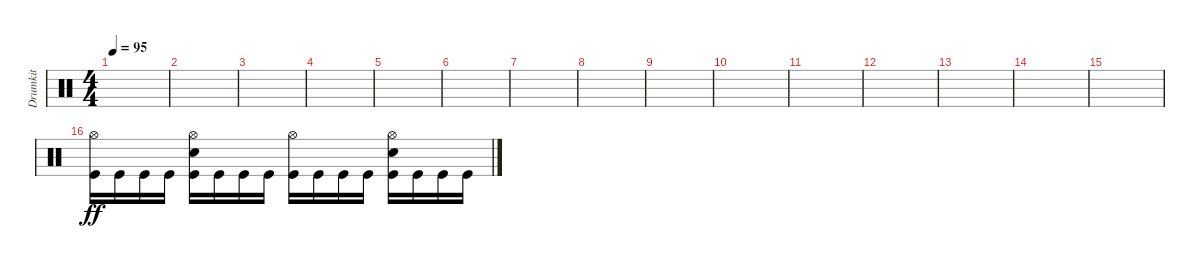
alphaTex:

\track ("Drumkit" "Drumkit") {instrument percussion}
\staff {score}
\articulation defaults
\ts (4 4)
\tempo 95
\clef neutral
\ks c
|
|
|
|
|
|
|
|
|
|
|
|
|
|
|
("Hi-Hat (open)" "Kick (hit)").16{dy ff} "Kick (hit)".16 "Kick (hit)".16 "Kick (hit)".16 ("Hi-Hat (open)" "Snare (hit) 2" "Kick (hit)").16 "Kick (hit)".16 "Kick (hit)".16 "Kick (hit)".16 ("Hi-Hat (open)" "Kick (hit)").16 "Kick (hit)".16 "Kick (hit)".16 "Kick (hit)".16 ("Hi-Hat (open)" "Snare (hit) 2" "Kick (hit)").16 "Kick (hit)".16 "Kick (hit)".16 "Kick (hit)".16
